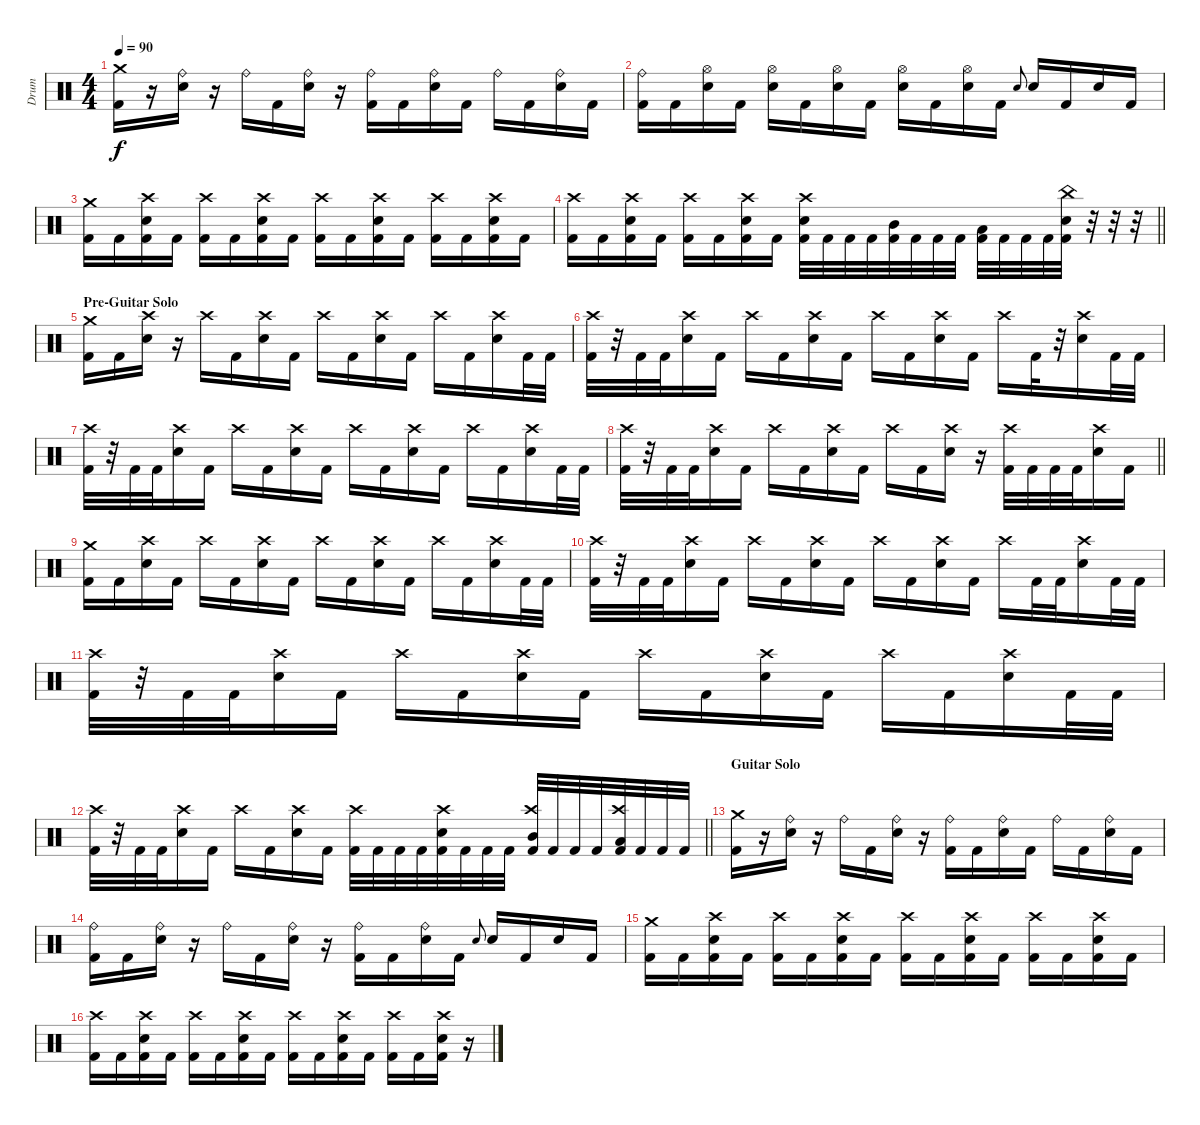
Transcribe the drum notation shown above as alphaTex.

\track ("Drum" "Drum") {instrument percussion}
\staff {score}
\articulation defaults
\ts (4 4)
\tempo 90
\clef neutral
\ks c
("Crash medium (hit)" "Kick (hit) 2").16{dy f} r.16 ("Ride (bell)" "Electric Snare (hit)").16 r.16 "Ride (bell)".16 "Kick (hit) 2".16 ("Ride (bell)" "Electric Snare (hit)").16 r.16 ("Ride (bell)" "Kick (hit) 2").16 "Kick (hit) 2".16 ("Ride (bell)" "Electric Snare (hit)").16 "Kick (hit) 2".16 "Ride (bell)".16 "Kick (hit) 2".16 ("Ride (bell)" "Electric Snare (hit)").16 "Kick (hit) 2".16 |
("Ride (bell)" "Kick (hit) 2").16 "Kick (hit) 2".16 ("Hi-Hat (open)" "Electric Snare (hit)").16 "Kick (hit) 2".16 ("Hi-Hat (open)" "Electric Snare (hit)").16 "Kick (hit) 2".16 ("Hi-Hat (open)" "Electric Snare (hit)").16 "Kick (hit) 2".16 ("Hi-Hat (open)" "Electric Snare (hit)").16 "Kick (hit) 2".16 ("Hi-Hat (open)" "Electric Snare (hit)").16 "Kick (hit) 2".16 "Electric Snare (hit)".8{gr onbeat} "Electric Snare (hit)".16 "Kick (hit) 2".16 "Electric Snare (hit)".16 "Kick (hit) 2".16 |
("Crash medium (hit)" "Kick (hit) 2").16 "Kick (hit) 2".16 ("Crash high (hit)" "Electric Snare (hit)" "Kick (hit) 2").16 "Kick (hit) 2".16 ("Crash high (hit)" "Kick (hit) 2").16 "Kick (hit) 2".16 ("Crash high (hit)" "Electric Snare (hit)" "Kick (hit) 2").16 "Kick (hit) 2".16 ("Crash high (hit)" "Kick (hit) 2").16 "Kick (hit) 2".16 ("Crash high (hit)" "Electric Snare (hit)" "Kick (hit) 2").16 "Kick (hit) 2".16 ("Crash high (hit)" "Kick (hit) 2").16 "Kick (hit) 2".16 ("Crash high (hit)" "Electric Snare (hit)" "Kick (hit) 2").16 "Kick (hit) 2".16 |
\barLineRight lightlight
("Crash high (hit)" "Kick (hit) 2").16 "Kick (hit) 2".16 ("Crash high (hit)" "Electric Snare (hit)" "Kick (hit) 2").16 "Kick (hit) 2".16 ("Crash high (hit)" "Kick (hit) 2").16 "Kick (hit) 2".16 ("Crash high (hit)" "Electric Snare (hit)" "Kick (hit) 2").16 "Kick (hit) 2".16 ("Crash high (hit)" "Electric Snare (hit)" "Kick (hit) 2").32 "Kick (hit) 2".32 "Kick (hit) 2".32 "Kick (hit) 2".32 ("Mid Tom (hit)" "Kick (hit) 2").32 "Kick (hit) 2".32 "Kick (hit) 2".32 "Kick (hit) 2".32 ("Low Tom (hit)" "Kick (hit) 2").32 "Kick (hit) 2".32 "Kick (hit) 2".32 "Kick (hit) 2".32 ("China (hit)" "Electric Snare (hit)" "Kick (hit) 2").32 r.32 r.32 r.32 |
\section ("" "Pre-Guitar Solo")
("Crash medium (hit)" "Kick (hit) 2").16 "Kick (hit) 2".16 ("Crash high (hit)" "Electric Snare (hit)").16 r.16 "Crash high (hit)".16 "Kick (hit) 2".16 ("Crash high (hit)" "Electric Snare (hit)").16 "Kick (hit) 2".16 "Crash high (hit)".16 "Kick (hit) 2".16 ("Crash high (hit)" "Electric Snare (hit)").16 "Kick (hit) 2".16 "Crash high (hit)".16 "Kick (hit) 2".16 ("Crash high (hit)" "Electric Snare (hit)").16 "Kick (hit) 2".32 "Kick (hit) 2".32 |
("Crash high (hit)" "Kick (hit) 2").32 r.32 "Kick (hit) 2".32 "Kick (hit) 2".32 ("Crash high (hit)" "Electric Snare (hit)").16 "Kick (hit) 2".16 "Crash high (hit)".16 "Kick (hit) 2".16 ("Crash high (hit)" "Electric Snare (hit)").16 "Kick (hit) 2".16 "Crash high (hit)".16 "Kick (hit) 2".16 ("Crash high (hit)" "Electric Snare (hit)").16 "Kick (hit) 2".16 "Crash high (hit)".16 "Kick (hit) 2".32 r.32 ("Crash high (hit)" "Electric Snare (hit)").16 "Kick (hit) 2".32 "Kick (hit) 2".32 |
("Crash high (hit)" "Kick (hit) 2").32 r.32 "Kick (hit) 2".32 "Kick (hit) 2".32 ("Crash high (hit)" "Electric Snare (hit)").16 "Kick (hit) 2".16 "Crash high (hit)".16 "Kick (hit) 2".16 ("Crash high (hit)" "Electric Snare (hit)").16 "Kick (hit) 2".16 "Crash high (hit)".16 "Kick (hit) 2".16 ("Crash high (hit)" "Electric Snare (hit)").16 "Kick (hit) 2".16 "Crash high (hit)".16 "Kick (hit) 2".16 ("Crash high (hit)" "Electric Snare (hit)").16 "Kick (hit) 2".32 "Kick (hit) 2".32 |
\barLineRight lightlight
("Crash high (hit)" "Kick (hit) 2").32 r.32 "Kick (hit) 2".32 "Kick (hit) 2".32 ("Crash high (hit)" "Electric Snare (hit)").16 "Kick (hit) 2".16 "Crash high (hit)".16 "Kick (hit) 2".16 ("Crash high (hit)" "Electric Snare (hit)").16 "Kick (hit) 2".16 "Crash high (hit)".16 "Kick (hit) 2".16 ("Crash high (hit)" "Electric Snare (hit)").16 r.16 ("Crash high (hit)" "Kick (hit) 2").32 "Kick (hit) 2".32 "Kick (hit) 2".32 "Kick (hit) 2".32 ("Crash high (hit)" "Electric Snare (hit)").16 "Kick (hit) 2".16 |
("Crash medium (hit)" "Kick (hit) 2").16 "Kick (hit) 2".16 ("Crash high (hit)" "Electric Snare (hit)").16 "Kick (hit) 2".16 "Crash high (hit)".16 "Kick (hit) 2".16 ("Crash high (hit)" "Electric Snare (hit)").16 "Kick (hit) 2".16 "Crash high (hit)".16 "Kick (hit) 2".16 ("Crash high (hit)" "Electric Snare (hit)").16 "Kick (hit) 2".16 "Crash high (hit)".16 "Kick (hit) 2".16 ("Crash high (hit)" "Electric Snare (hit)").16 "Kick (hit) 2".32 "Kick (hit) 2".32 |
("Crash high (hit)" "Kick (hit) 2").32 r.32 "Kick (hit) 2".32 "Kick (hit) 2".32 ("Crash high (hit)" "Electric Snare (hit)").16 "Kick (hit) 2".16 "Crash high (hit)".16 "Kick (hit) 2".16 ("Crash high (hit)" "Electric Snare (hit)").16 "Kick (hit) 2".16 "Crash high (hit)".16 "Kick (hit) 2".16 ("Crash high (hit)" "Electric Snare (hit)").16 "Kick (hit) 2".16 "Crash high (hit)".16 "Kick (hit) 2".32 "Kick (hit) 2".32 ("Crash high (hit)" "Electric Snare (hit)").16 "Kick (hit) 2".32 "Kick (hit) 2".32 |
("Crash high (hit)" "Kick (hit) 2").32 r.32 "Kick (hit) 2".32 "Kick (hit) 2".32 ("Crash high (hit)" "Electric Snare (hit)").16 "Kick (hit) 2".16 "Crash high (hit)".16 "Kick (hit) 2".16 ("Crash high (hit)" "Electric Snare (hit)").16 "Kick (hit) 2".16 "Crash high (hit)".16 "Kick (hit) 2".16 ("Crash high (hit)" "Electric Snare (hit)").16 "Kick (hit) 2".16 "Crash high (hit)".16 "Kick (hit) 2".16 ("Crash high (hit)" "Electric Snare (hit)").16 "Kick (hit) 2".32 "Kick (hit) 2".32 |
\barLineRight lightlight
("Crash high (hit)" "Kick (hit) 2").32 r.32 "Kick (hit) 2".32 "Kick (hit) 2".32 ("Crash high (hit)" "Electric Snare (hit)").16 "Kick (hit) 2".16 "Crash high (hit)".16 "Kick (hit) 2".16 ("Crash high (hit)" "Electric Snare (hit)").16 "Kick (hit) 2".16 ("Crash high (hit)" "Kick (hit) 2").32 "Kick (hit) 2".32 "Kick (hit) 2".32 "Kick (hit) 2".32 ("Crash high (hit)" "Electric Snare (hit)" "Kick (hit) 2").32 "Kick (hit) 2".32 "Kick (hit) 2".32 "Kick (hit) 2".32 ("Crash high (hit)" "Mid Tom (hit)" "Kick (hit) 2").32 "Kick (hit) 2".32 "Kick (hit) 2".32 "Kick (hit) 2".32 ("Crash high (hit)" "Low Tom (hit)" "Kick (hit) 2").32 "Kick (hit) 2".32 "Kick (hit) 2".32 "Kick (hit) 2".32 |
\section ("" "Guitar Solo")
("Crash medium (hit)" "Kick (hit) 2").16 r.16 ("Ride (bell)" "Electric Snare (hit)").16 r.16 "Ride (bell)".16 "Kick (hit) 2".16 ("Ride (bell)" "Electric Snare (hit)").16 r.16 ("Ride (bell)" "Kick (hit) 2").16 "Kick (hit) 2".16 ("Ride (bell)" "Electric Snare (hit)").16 "Kick (hit) 2".16 "Ride (bell)".16 "Kick (hit) 2".16 ("Ride (bell)" "Electric Snare (hit)").16 "Kick (hit) 2".16 |
("Ride (bell)" "Kick (hit) 2").16 "Kick (hit) 2".16 ("Ride (bell)" "Electric Snare (hit)").16 r.16 "Ride (bell)".16 "Kick (hit) 2".16 ("Ride (bell)" "Electric Snare (hit)").16 r.16 ("Ride (bell)" "Kick (hit) 2").16 "Kick (hit) 2".16 ("Ride (bell)" "Electric Snare (hit)").16 "Kick (hit) 2".16 "Electric Snare (hit)".8{gr onbeat} "Electric Snare (hit)".16 "Kick (hit) 2".16 "Electric Snare (hit)".16 "Kick (hit) 2".16 |
("Crash medium (hit)" "Kick (hit) 2").16 "Kick (hit) 2".16 ("Crash high (hit)" "Electric Snare (hit)" "Kick (hit) 2").16 "Kick (hit) 2".16 ("Crash high (hit)" "Kick (hit) 2").16 "Kick (hit) 2".16 ("Crash high (hit)" "Electric Snare (hit)" "Kick (hit) 2").16 "Kick (hit) 2".16 ("Crash high (hit)" "Kick (hit) 2").16 "Kick (hit) 2".16 ("Crash high (hit)" "Electric Snare (hit)" "Kick (hit) 2").16 "Kick (hit) 2".16 ("Crash high (hit)" "Kick (hit) 2").16 "Kick (hit) 2".16 ("Crash high (hit)" "Electric Snare (hit)" "Kick (hit) 2").16 "Kick (hit) 2".16 |
("Crash high (hit)" "Kick (hit) 2").16 "Kick (hit) 2".16 ("Crash high (hit)" "Electric Snare (hit)" "Kick (hit) 2").16 "Kick (hit) 2".16 ("Crash high (hit)" "Kick (hit) 2").16 "Kick (hit) 2".16 ("Crash high (hit)" "Electric Snare (hit)" "Kick (hit) 2").16 "Kick (hit) 2".16 ("Crash high (hit)" "Kick (hit) 2").16 "Kick (hit) 2".16 ("Crash high (hit)" "Electric Snare (hit)" "Kick (hit) 2").16 "Kick (hit) 2".16 ("Crash high (hit)" "Kick (hit) 2").16 "Kick (hit) 2".16 ("Crash high (hit)" "Electric Snare (hit)" "Kick (hit) 2").16 r.16
